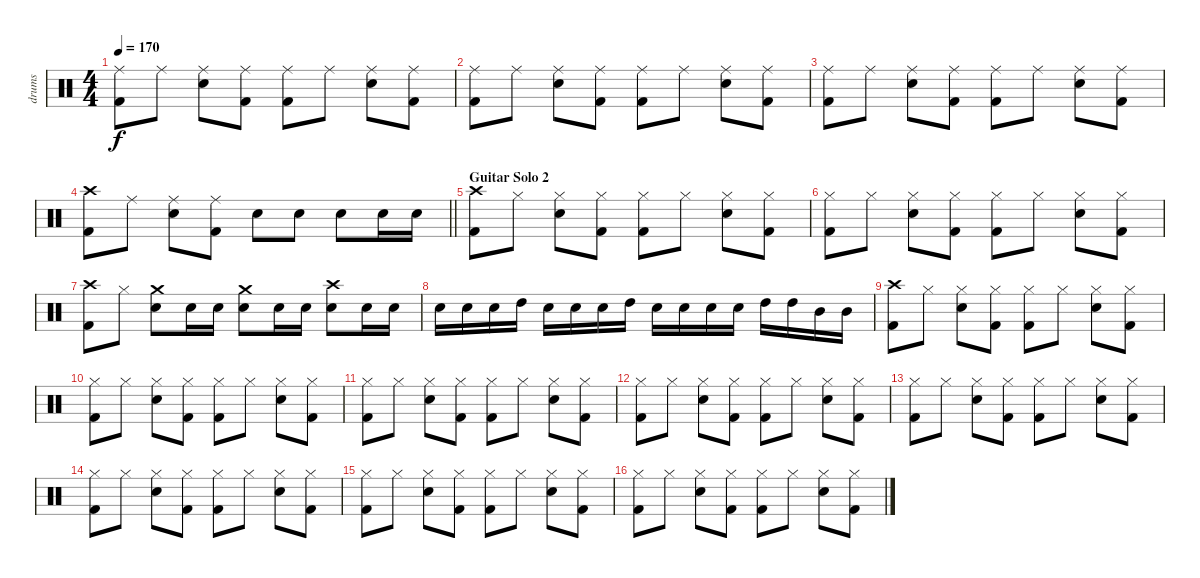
\track ("drums" "drums") {instrument percussion}
\staff {score}
\articulation defaults
\ts (4 4)
\tempo 170
\clef neutral
\ks c
("Ride (middle)" "Kick (hit) 2").8{dy f} "Ride (middle)".8 ("Ride (middle)" "Snare (hit) 2").8 ("Ride (middle)" "Kick (hit) 2").8 ("Ride (middle)" "Kick (hit) 2").8 "Ride (middle)".8 ("Ride (middle)" "Snare (hit) 2").8 ("Ride (middle)" "Kick (hit) 2").8 |
("Ride (middle)" "Kick (hit) 2").8 "Ride (middle)".8 ("Ride (middle)" "Snare (hit) 2").8 ("Ride (middle)" "Kick (hit) 2").8 ("Ride (middle)" "Kick (hit) 2").8 "Ride (middle)".8 ("Ride (middle)" "Snare (hit) 2").8 ("Ride (middle)" "Kick (hit) 2").8 |
("Ride (middle)" "Kick (hit) 2").8 "Ride (middle)".8 ("Ride (middle)" "Snare (hit) 2").8 ("Ride (middle)" "Kick (hit) 2").8 ("Ride (middle)" "Kick (hit) 2").8 "Ride (middle)".8 ("Ride (middle)" "Snare (hit) 2").8 ("Ride (middle)" "Kick (hit) 2").8 |
\barLineRight lightlight
("Crash high (hit)" "Kick (hit) 2").8 "Ride (middle)".8 ("Ride (middle)" "Snare (hit) 2").8 ("Ride (middle)" "Kick (hit) 2").8 "Snare (hit) 2".8 "Snare (hit) 2".8 "Snare (hit) 2".8 "Snare (hit) 2".16 "Snare (hit) 2".16 |
\section ("" "Guitar Solo 2")
("Crash high (hit)" "Kick (hit) 2").8 "Hi-Hat (closed)".8 ("Hi-Hat (closed)" "Snare (hit) 2").8 ("Hi-Hat (closed)" "Kick (hit) 2").8 ("Hi-Hat (closed)" "Kick (hit) 2").8 "Hi-Hat (closed)".8 ("Hi-Hat (closed)" "Snare (hit) 2").8 ("Hi-Hat (closed)" "Kick (hit) 2").8 |
("Hi-Hat (closed)" "Kick (hit) 2").8 "Hi-Hat (closed)".8 ("Hi-Hat (closed)" "Snare (hit) 2").8 ("Hi-Hat (closed)" "Kick (hit) 2").8 ("Hi-Hat (closed)" "Kick (hit) 2").8 "Hi-Hat (closed)".8 ("Hi-Hat (closed)" "Snare (hit) 2").8 ("Hi-Hat (closed)" "Kick (hit) 2").8 |
("Crash high (hit)" "Kick (hit) 2").8 "Hi-Hat (closed)".8 ("Crash medium (hit)" "Snare (hit) 2").8 "Snare (hit) 2".16 "Snare (hit) 2".16 ("Crash medium (hit)" "Snare (hit) 2").8 "Snare (hit) 2".16 "Snare (hit) 2".16 ("Crash high (hit)" "Snare (hit) 2").8 "Snare (hit) 2".16 "Snare (hit) 2".16 |
"Snare (hit) 2".16 "Snare (hit) 2".16 "Snare (hit) 2".16 "High Tom (hit)".16 "Snare (hit) 2".16 "Snare (hit) 2".16 "Snare (hit) 2".16 "High Tom (hit)".16 "Snare (hit) 2".16 "Snare (hit) 2".16 "Snare (hit) 2".16 "Snare (hit) 2".16 "High Tom (hit)".16 "High Tom (hit)".16 "Mid Tom (hit)".16 "Mid Tom (hit)".16 |
("Crash high (hit)" "Kick (hit) 2").8 "Hi-Hat (closed)".8 ("Hi-Hat (closed)" "Snare (hit) 2").8 ("Hi-Hat (closed)" "Kick (hit) 2").8 ("Hi-Hat (closed)" "Kick (hit) 2").8 "Hi-Hat (closed)".8 ("Hi-Hat (closed)" "Snare (hit) 2").8 ("Hi-Hat (closed)" "Kick (hit) 2").8 |
("Hi-Hat (closed)" "Kick (hit) 2").8 "Hi-Hat (closed)".8 ("Hi-Hat (closed)" "Snare (hit) 2").8 ("Hi-Hat (closed)" "Kick (hit) 2").8 ("Hi-Hat (closed)" "Kick (hit) 2").8 "Hi-Hat (closed)".8 ("Hi-Hat (closed)" "Snare (hit) 2").8 ("Hi-Hat (closed)" "Kick (hit) 2").8 |
("Hi-Hat (closed)" "Kick (hit) 2").8 "Hi-Hat (closed)".8 ("Hi-Hat (closed)" "Snare (hit) 2").8 ("Hi-Hat (closed)" "Kick (hit) 2").8 ("Hi-Hat (closed)" "Kick (hit) 2").8 "Hi-Hat (closed)".8 ("Hi-Hat (closed)" "Snare (hit) 2").8 ("Hi-Hat (closed)" "Kick (hit) 2").8 |
("Hi-Hat (closed)" "Kick (hit) 2").8 "Hi-Hat (closed)".8 ("Hi-Hat (closed)" "Snare (hit) 2").8 ("Hi-Hat (closed)" "Kick (hit) 2").8 ("Hi-Hat (closed)" "Kick (hit) 2").8 "Hi-Hat (closed)".8 ("Hi-Hat (closed)" "Snare (hit) 2").8 ("Hi-Hat (closed)" "Kick (hit) 2").8 |
("Hi-Hat (closed)" "Kick (hit) 2").8 "Hi-Hat (closed)".8 ("Hi-Hat (closed)" "Snare (hit) 2").8 ("Hi-Hat (closed)" "Kick (hit) 2").8 ("Hi-Hat (closed)" "Kick (hit) 2").8 "Hi-Hat (closed)".8 ("Hi-Hat (closed)" "Snare (hit) 2").8 ("Hi-Hat (closed)" "Kick (hit) 2").8 |
("Hi-Hat (closed)" "Kick (hit) 2").8 "Hi-Hat (closed)".8 ("Hi-Hat (closed)" "Snare (hit) 2").8 ("Hi-Hat (closed)" "Kick (hit) 2").8 ("Hi-Hat (closed)" "Kick (hit) 2").8 "Hi-Hat (closed)".8 ("Hi-Hat (closed)" "Snare (hit) 2").8 ("Hi-Hat (closed)" "Kick (hit) 2").8 |
("Hi-Hat (closed)" "Kick (hit) 2").8 "Hi-Hat (closed)".8 ("Hi-Hat (closed)" "Snare (hit) 2").8 ("Hi-Hat (closed)" "Kick (hit) 2").8 ("Hi-Hat (closed)" "Kick (hit) 2").8 "Hi-Hat (closed)".8 ("Hi-Hat (closed)" "Snare (hit) 2").8 ("Hi-Hat (closed)" "Kick (hit) 2").8 |
("Hi-Hat (closed)" "Kick (hit) 2").8 "Hi-Hat (closed)".8 ("Hi-Hat (closed)" "Snare (hit) 2").8 ("Hi-Hat (closed)" "Kick (hit) 2").8 ("Hi-Hat (closed)" "Kick (hit) 2").8 "Hi-Hat (closed)".8 ("Hi-Hat (closed)" "Snare (hit) 2").8 ("Hi-Hat (closed)" "Kick (hit) 2").8
